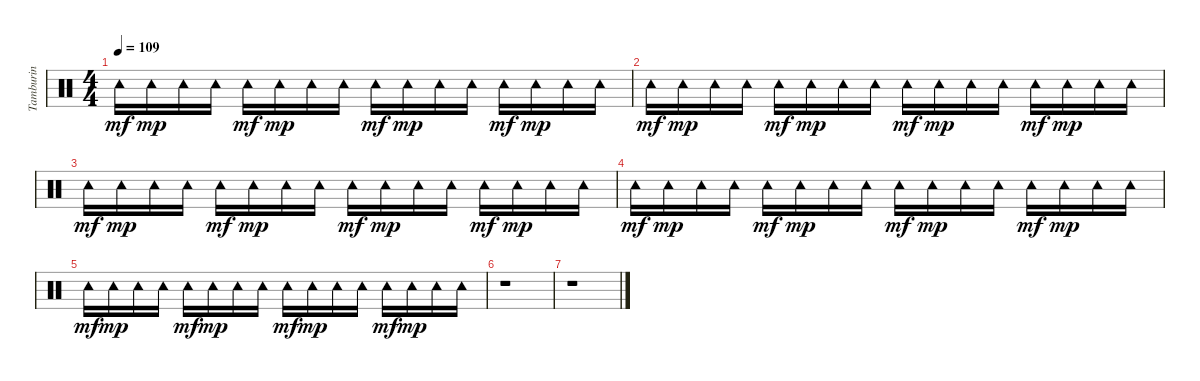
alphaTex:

\track ("Tamburin" "Tamburin") {instrument percussion}
\staff {score}
\articulation defaults
\ts (4 4)
\tempo 109
\clef neutral
\ks c "Tambourine (hit)".16{dy mf} "Tambourine (hit)".16{dy mp} "Tambourine (hit)".16 "Tambourine (hit)".16 "Tambourine (hit)".16{dy mf} "Tambourine (hit)".16{dy mp} "Tambourine (hit)".16 "Tambourine (hit)".16 "Tambourine (hit)".16{dy mf} "Tambourine (hit)".16{dy mp} "Tambourine (hit)".16 "Tambourine (hit)".16 "Tambourine (hit)".16{dy mf} "Tambourine (hit)".16{dy mp} "Tambourine (hit)".16 "Tambourine (hit)".16
|
"Tambourine (hit)".16{dy mf} "Tambourine (hit)".16{dy mp} "Tambourine (hit)".16 "Tambourine (hit)".16 "Tambourine (hit)".16{dy mf} "Tambourine (hit)".16{dy mp} "Tambourine (hit)".16 "Tambourine (hit)".16 "Tambourine (hit)".16{dy mf} "Tambourine (hit)".16{dy mp} "Tambourine (hit)".16 "Tambourine (hit)".16 "Tambourine (hit)".16{dy mf} "Tambourine (hit)".16{dy mp} "Tambourine (hit)".16 "Tambourine (hit)".16 |
"Tambourine (hit)".16{dy mf} "Tambourine (hit)".16{dy mp} "Tambourine (hit)".16 "Tambourine (hit)".16 "Tambourine (hit)".16{dy mf} "Tambourine (hit)".16{dy mp} "Tambourine (hit)".16 "Tambourine (hit)".16 "Tambourine (hit)".16{dy mf} "Tambourine (hit)".16{dy mp} "Tambourine (hit)".16 "Tambourine (hit)".16 "Tambourine (hit)".16{dy mf} "Tambourine (hit)".16{dy mp} "Tambourine (hit)".16 "Tambourine (hit)".16 |
"Tambourine (hit)".16{dy mf} "Tambourine (hit)".16{dy mp} "Tambourine (hit)".16 "Tambourine (hit)".16 "Tambourine (hit)".16{dy mf} "Tambourine (hit)".16{dy mp} "Tambourine (hit)".16 "Tambourine (hit)".16 "Tambourine (hit)".16{dy mf} "Tambourine (hit)".16{dy mp} "Tambourine (hit)".16 "Tambourine (hit)".16 "Tambourine (hit)".16{dy mf} "Tambourine (hit)".16{dy mp} "Tambourine (hit)".16 "Tambourine (hit)".16 |
"Tambourine (hit)".16{dy mf} "Tambourine (hit)".16{dy mp} "Tambourine (hit)".16 "Tambourine (hit)".16 "Tambourine (hit)".16{dy mf} "Tambourine (hit)".16{dy mp} "Tambourine (hit)".16 "Tambourine (hit)".16 "Tambourine (hit)".16{dy mf} "Tambourine (hit)".16{dy mp} "Tambourine (hit)".16 "Tambourine (hit)".16 "Tambourine (hit)".16{dy mf} "Tambourine (hit)".16{dy mp} "Tambourine (hit)".16 "Tambourine (hit)".16 |
r.1 |
r.1
